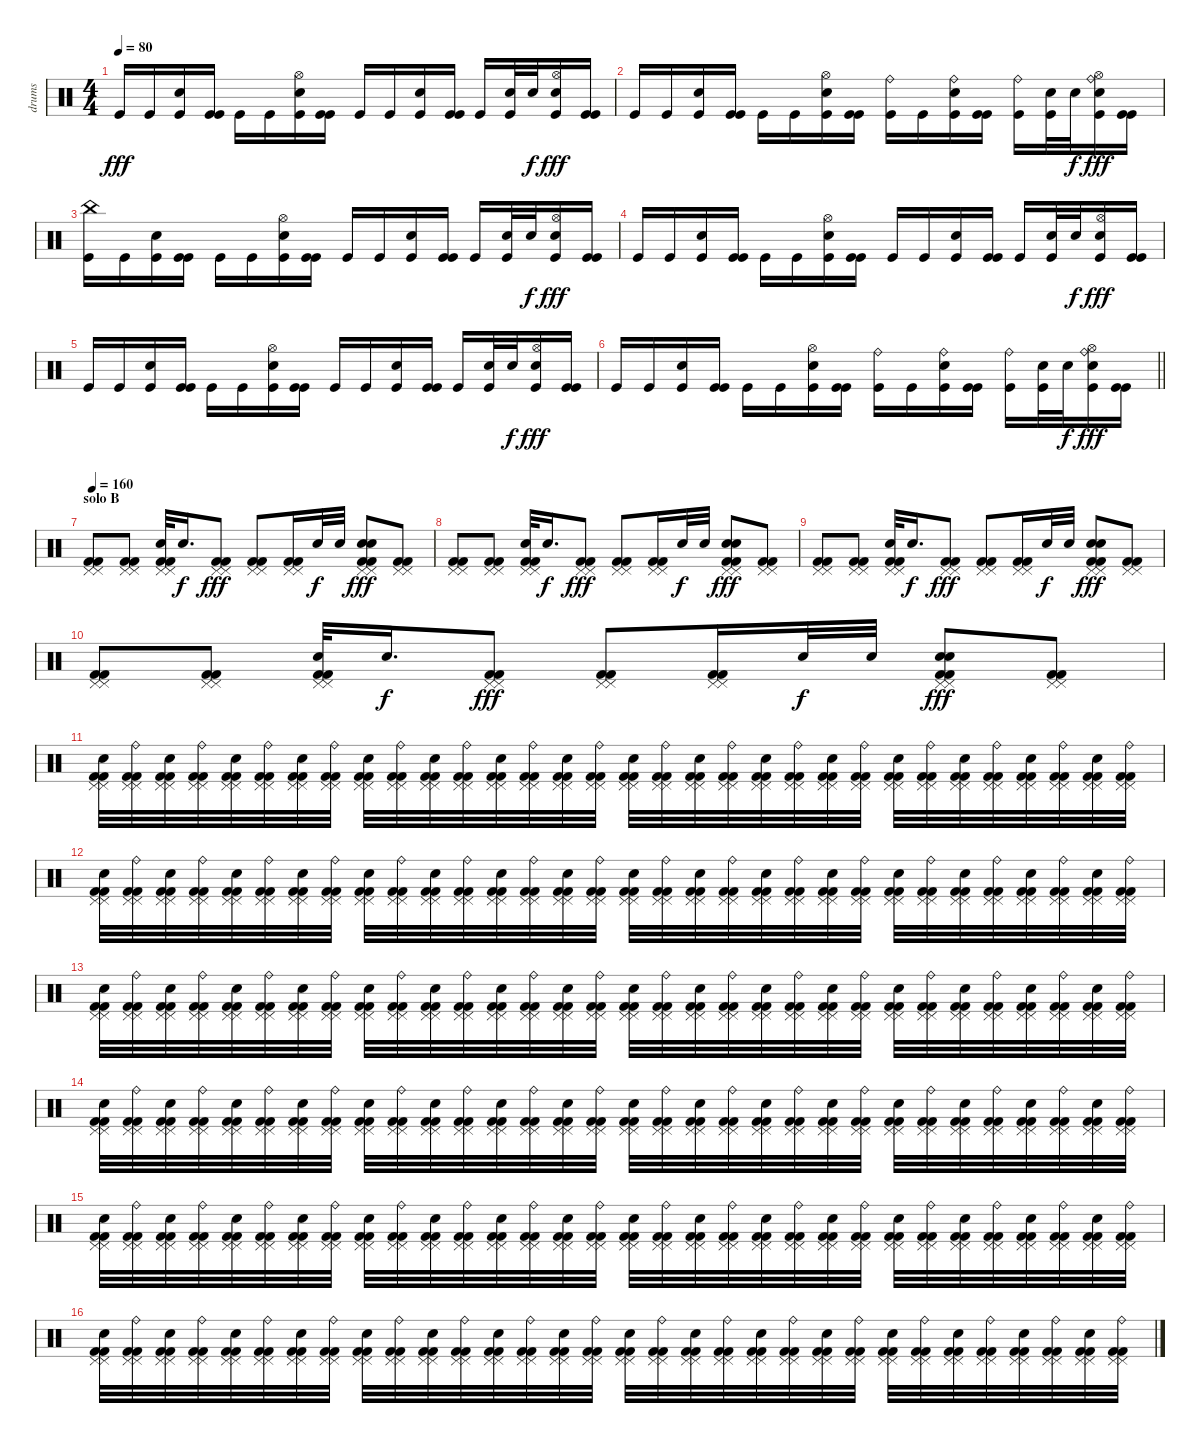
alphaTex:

\track ("drums" "drums") {instrument percussion}
\staff {score}
\articulation defaults
\ts (4 4)
\tempo 80
\clef neutral
\ks c "Kick (hit)".16{dy fff} "Kick (hit)".16
("Kick (hit)" "Electric Snare (hit)").16 ("Kick (hit)" "Kick (hit)").16 "Kick (hit)".16 "Kick (hit)".16 ("Kick (hit)" "Electric Snare (hit)" "Hi-Hat (open)").16 ("Kick (hit)" "Kick (hit)").16 "Kick (hit)".16 "Kick (hit)".16 ("Kick (hit)" "Electric Snare (hit)").16 ("Kick (hit)" "Kick (hit)").16 "Kick (hit)".16 ("Kick (hit)" "Electric Snare (hit)").32 "Electric Snare (hit)".32{dy f} ("Kick (hit)" "Snare (hit)" "Hi-Hat (open)").16{dy fff} ("Kick (hit)" "Kick (hit)").16 |
"Kick (hit)".16 "Kick (hit)".16 ("Kick (hit)" "Electric Snare (hit)").16 ("Kick (hit)" "Kick (hit)").16 "Kick (hit)".16 "Kick (hit)".16 ("Kick (hit)" "Electric Snare (hit)" "Hi-Hat (open)").16 ("Kick (hit)" "Kick (hit)").16 ("Kick (hit)" "Ride (bell)").16 "Kick (hit)".16 ("Kick (hit)" "Electric Snare (hit)" "Ride (bell)").16 ("Kick (hit)" "Kick (hit)").16 ("Kick (hit)" "Ride (bell)").16 ("Kick (hit)" "Electric Snare (hit)").32 "Electric Snare (hit)".32{dy f} ("Kick (hit)" "Snare (hit)" "Hi-Hat (open)" "Ride (bell)").16{dy fff} ("Kick (hit)" "Kick (hit)").16 |
("Kick (hit)" "China (hit)").16 "Kick (hit)".16 ("Kick (hit)" "Electric Snare (hit)").16 ("Kick (hit)" "Kick (hit)").16 "Kick (hit)".16 "Kick (hit)".16 ("Kick (hit)" "Electric Snare (hit)" "Hi-Hat (open)").16 ("Kick (hit)" "Kick (hit)").16 "Kick (hit)".16 "Kick (hit)".16 ("Kick (hit)" "Electric Snare (hit)").16 ("Kick (hit)" "Kick (hit)").16 "Kick (hit)".16 ("Kick (hit)" "Electric Snare (hit)").32 "Electric Snare (hit)".32{dy f} ("Kick (hit)" "Snare (hit)" "Hi-Hat (open)").16{dy fff} ("Kick (hit)" "Kick (hit)").16 |
"Kick (hit)".16 "Kick (hit)".16 ("Kick (hit)" "Electric Snare (hit)").16 ("Kick (hit)" "Kick (hit)").16 "Kick (hit)".16 "Kick (hit)".16 ("Kick (hit)" "Electric Snare (hit)" "Hi-Hat (open)").16 ("Kick (hit)" "Kick (hit)").16 "Kick (hit)".16 "Kick (hit)".16 ("Kick (hit)" "Electric Snare (hit)").16 ("Kick (hit)" "Kick (hit)").16 "Kick (hit)".16 ("Kick (hit)" "Electric Snare (hit)").32 "Electric Snare (hit)".32{dy f} ("Kick (hit)" "Snare (hit)" "Hi-Hat (open)").16{dy fff} ("Kick (hit)" "Kick (hit)").16 |
"Kick (hit)".16 "Kick (hit)".16 ("Kick (hit)" "Electric Snare (hit)").16 ("Kick (hit)" "Kick (hit)").16 "Kick (hit)".16 "Kick (hit)".16 ("Kick (hit)" "Electric Snare (hit)" "Hi-Hat (open)").16 ("Kick (hit)" "Kick (hit)").16 "Kick (hit)".16 "Kick (hit)".16 ("Kick (hit)" "Electric Snare (hit)").16 ("Kick (hit)" "Kick (hit)").16 "Kick (hit)".16 ("Kick (hit)" "Electric Snare (hit)").32 "Electric Snare (hit)".32{dy f} ("Kick (hit)" "Snare (hit)" "Hi-Hat (open)").16{dy fff} ("Kick (hit)" "Kick (hit)").16 |
\barLineRight lightlight "Kick (hit)".16 "Kick (hit)".16
("Kick (hit)" "Electric Snare (hit)").16 ("Kick (hit)" "Kick (hit)").16 "Kick (hit)".16 "Kick (hit)".16 ("Kick (hit)" "Electric Snare (hit)" "Hi-Hat (open)").16 ("Kick (hit)" "Kick (hit)").16 ("Kick (hit)" "Ride (bell)").16 "Kick (hit)".16 ("Kick (hit)" "Electric Snare (hit)" "Ride (bell)").16 ("Kick (hit)" "Kick (hit)").16 ("Kick (hit)" "Ride (bell)").16 ("Kick (hit)" "Electric Snare (hit)").32 "Electric Snare (hit)".32{dy f} ("Kick (hit)" "Snare (hit)" "Hi-Hat (open)" "Ride (bell)").16{dy fff} ("Kick (hit)" "Kick (hit)").16 |
\section ("" "solo B")
\tempo 160
("Pedal Hi-Hat (hit)" "Pedal Hi-Hat (hit)" "Kick (hit) 2" "Kick (hit) 2").8 ("Pedal Hi-Hat (hit)" "Pedal Hi-Hat (hit)" "Kick (hit) 2" "Kick (hit) 2").8 ("Snare (hit) 2" "Pedal Hi-Hat (hit)" "Pedal Hi-Hat (hit)" "Kick (hit) 2" "Kick (hit) 2").32 "Snare (hit) 2".16{d dy f} ("Pedal Hi-Hat (hit)" "Pedal Hi-Hat (hit)" "Kick (hit) 2" "Kick (hit) 2").8{dy fff} ("Pedal Hi-Hat (hit)" "Pedal Hi-Hat (hit)" "Kick (hit) 2" "Kick (hit) 2").8 ("Pedal Hi-Hat (hit)" "Pedal Hi-Hat (hit)" "Kick (hit) 2" "Kick (hit) 2").16 "Snare (hit) 2".32{dy f} "Snare (hit) 2".32 ("Snare (hit) 2" "Snare (hit) 2" "Pedal Hi-Hat (hit)" "Pedal Hi-Hat (hit)" "Kick (hit) 2" "Kick (hit) 2").8{dy fff} ("Pedal Hi-Hat (hit)" "Pedal Hi-Hat (hit)" "Kick (hit) 2" "Kick (hit) 2").8 |
("Pedal Hi-Hat (hit)" "Pedal Hi-Hat (hit)" "Kick (hit) 2" "Kick (hit) 2").8 ("Pedal Hi-Hat (hit)" "Pedal Hi-Hat (hit)" "Kick (hit) 2" "Kick (hit) 2").8 ("Snare (hit) 2" "Pedal Hi-Hat (hit)" "Pedal Hi-Hat (hit)" "Kick (hit) 2" "Kick (hit) 2").32 "Snare (hit) 2".16{d dy f} ("Pedal Hi-Hat (hit)" "Pedal Hi-Hat (hit)" "Kick (hit) 2" "Kick (hit) 2").8{dy fff} ("Pedal Hi-Hat (hit)" "Pedal Hi-Hat (hit)" "Kick (hit) 2" "Kick (hit) 2").8 ("Pedal Hi-Hat (hit)" "Pedal Hi-Hat (hit)" "Kick (hit) 2" "Kick (hit) 2").16 "Snare (hit) 2".32{dy f} "Snare (hit) 2".32 ("Snare (hit) 2" "Snare (hit) 2" "Pedal Hi-Hat (hit)" "Pedal Hi-Hat (hit)" "Kick (hit) 2" "Kick (hit) 2").8{dy fff} ("Pedal Hi-Hat (hit)" "Pedal Hi-Hat (hit)" "Kick (hit) 2" "Kick (hit) 2").8 |
("Pedal Hi-Hat (hit)" "Pedal Hi-Hat (hit)" "Kick (hit) 2" "Kick (hit) 2").8 ("Pedal Hi-Hat (hit)" "Pedal Hi-Hat (hit)" "Kick (hit) 2" "Kick (hit) 2").8 ("Snare (hit) 2" "Pedal Hi-Hat (hit)" "Pedal Hi-Hat (hit)" "Kick (hit) 2" "Kick (hit) 2").32 "Snare (hit) 2".16{d dy f} ("Pedal Hi-Hat (hit)" "Pedal Hi-Hat (hit)" "Kick (hit) 2" "Kick (hit) 2").8{dy fff} ("Pedal Hi-Hat (hit)" "Pedal Hi-Hat (hit)" "Kick (hit) 2" "Kick (hit) 2").8 ("Pedal Hi-Hat (hit)" "Pedal Hi-Hat (hit)" "Kick (hit) 2" "Kick (hit) 2").16 "Snare (hit) 2".32{dy f} "Snare (hit) 2".32 ("Snare (hit) 2" "Snare (hit) 2" "Pedal Hi-Hat (hit)" "Pedal Hi-Hat (hit)" "Kick (hit) 2" "Kick (hit) 2").8{dy fff} ("Pedal Hi-Hat (hit)" "Pedal Hi-Hat (hit)" "Kick (hit) 2" "Kick (hit) 2").8 |
("Pedal Hi-Hat (hit)" "Pedal Hi-Hat (hit)" "Kick (hit) 2" "Kick (hit) 2").8 ("Pedal Hi-Hat (hit)" "Pedal Hi-Hat (hit)" "Kick (hit) 2" "Kick (hit) 2").8 ("Snare (hit) 2" "Pedal Hi-Hat (hit)" "Pedal Hi-Hat (hit)" "Kick (hit) 2" "Kick (hit) 2").32 "Snare (hit) 2".16{d dy f} ("Pedal Hi-Hat (hit)" "Pedal Hi-Hat (hit)" "Kick (hit) 2" "Kick (hit) 2").8{dy fff} ("Pedal Hi-Hat (hit)" "Pedal Hi-Hat (hit)" "Kick (hit) 2" "Kick (hit) 2").8 ("Pedal Hi-Hat (hit)" "Pedal Hi-Hat (hit)" "Kick (hit) 2" "Kick (hit) 2").16 "Snare (hit) 2".32{dy f} "Snare (hit) 2".32 ("Snare (hit) 2" "Snare (hit) 2" "Pedal Hi-Hat (hit)" "Pedal Hi-Hat (hit)" "Kick (hit) 2" "Kick (hit) 2").8{dy fff} ("Pedal Hi-Hat (hit)" "Pedal Hi-Hat (hit)" "Kick (hit) 2" "Kick (hit) 2").8 |
("Electric Snare (hit)" "Pedal Hi-Hat (hit)" "Pedal Hi-Hat (hit)" "Kick (hit) 2" "Kick (hit) 2").32 ("Ride (bell)" "Pedal Hi-Hat (hit)" "Pedal Hi-Hat (hit)" "Kick (hit) 2" "Kick (hit) 2").32 ("Electric Snare (hit)" "Pedal Hi-Hat (hit)" "Pedal Hi-Hat (hit)" "Kick (hit) 2" "Kick (hit) 2").32 ("Ride (bell)" "Pedal Hi-Hat (hit)" "Pedal Hi-Hat (hit)" "Kick (hit) 2" "Kick (hit) 2").32 ("Electric Snare (hit)" "Pedal Hi-Hat (hit)" "Pedal Hi-Hat (hit)" "Kick (hit) 2" "Kick (hit) 2").32 ("Ride (bell)" "Pedal Hi-Hat (hit)" "Pedal Hi-Hat (hit)" "Kick (hit) 2" "Kick (hit) 2").32 ("Electric Snare (hit)" "Pedal Hi-Hat (hit)" "Pedal Hi-Hat (hit)" "Kick (hit) 2" "Kick (hit) 2").32 ("Ride (bell)" "Pedal Hi-Hat (hit)" "Pedal Hi-Hat (hit)" "Kick (hit) 2" "Kick (hit) 2").32 ("Electric Snare (hit)" "Pedal Hi-Hat (hit)" "Pedal Hi-Hat (hit)" "Kick (hit) 2" "Kick (hit) 2").32 ("Ride (bell)" "Pedal Hi-Hat (hit)" "Pedal Hi-Hat (hit)" "Kick (hit) 2" "Kick (hit) 2").32 ("Electric Snare (hit)" "Pedal Hi-Hat (hit)" "Pedal Hi-Hat (hit)" "Kick (hit) 2" "Kick (hit) 2").32 ("Ride (bell)" "Pedal Hi-Hat (hit)" "Pedal Hi-Hat (hit)" "Kick (hit) 2" "Kick (hit) 2").32 ("Electric Snare (hit)" "Pedal Hi-Hat (hit)" "Pedal Hi-Hat (hit)" "Kick (hit) 2" "Kick (hit) 2").32 ("Ride (bell)" "Pedal Hi-Hat (hit)" "Pedal Hi-Hat (hit)" "Kick (hit) 2" "Kick (hit) 2").32 ("Electric Snare (hit)" "Pedal Hi-Hat (hit)" "Pedal Hi-Hat (hit)" "Kick (hit) 2" "Kick (hit) 2").32 ("Ride (bell)" "Pedal Hi-Hat (hit)" "Pedal Hi-Hat (hit)" "Kick (hit) 2" "Kick (hit) 2").32 ("Electric Snare (hit)" "Pedal Hi-Hat (hit)" "Pedal Hi-Hat (hit)" "Kick (hit) 2" "Kick (hit) 2").32 ("Ride (bell)" "Pedal Hi-Hat (hit)" "Pedal Hi-Hat (hit)" "Kick (hit) 2" "Kick (hit) 2").32 ("Electric Snare (hit)" "Pedal Hi-Hat (hit)" "Pedal Hi-Hat (hit)" "Kick (hit) 2" "Kick (hit) 2").32 ("Ride (bell)" "Pedal Hi-Hat (hit)" "Pedal Hi-Hat (hit)" "Kick (hit) 2" "Kick (hit) 2").32 ("Electric Snare (hit)" "Pedal Hi-Hat (hit)" "Pedal Hi-Hat (hit)" "Kick (hit) 2" "Kick (hit) 2").32 ("Ride (bell)" "Pedal Hi-Hat (hit)" "Pedal Hi-Hat (hit)" "Kick (hit) 2" "Kick (hit) 2").32 ("Electric Snare (hit)" "Pedal Hi-Hat (hit)" "Pedal Hi-Hat (hit)" "Kick (hit) 2" "Kick (hit) 2").32 ("Ride (bell)" "Pedal Hi-Hat (hit)" "Pedal Hi-Hat (hit)" "Kick (hit) 2" "Kick (hit) 2").32 ("Electric Snare (hit)" "Pedal Hi-Hat (hit)" "Pedal Hi-Hat (hit)" "Kick (hit) 2" "Kick (hit) 2").32 ("Ride (bell)" "Pedal Hi-Hat (hit)" "Pedal Hi-Hat (hit)" "Kick (hit) 2" "Kick (hit) 2").32 ("Electric Snare (hit)" "Pedal Hi-Hat (hit)" "Pedal Hi-Hat (hit)" "Kick (hit) 2" "Kick (hit) 2").32 ("Ride (bell)" "Pedal Hi-Hat (hit)" "Pedal Hi-Hat (hit)" "Kick (hit) 2" "Kick (hit) 2").32 ("Electric Snare (hit)" "Pedal Hi-Hat (hit)" "Pedal Hi-Hat (hit)" "Kick (hit) 2" "Kick (hit) 2").32 ("Ride (bell)" "Pedal Hi-Hat (hit)" "Pedal Hi-Hat (hit)" "Kick (hit) 2" "Kick (hit) 2").32 ("Electric Snare (hit)" "Pedal Hi-Hat (hit)" "Pedal Hi-Hat (hit)" "Kick (hit) 2" "Kick (hit) 2").32 ("Ride (bell)" "Pedal Hi-Hat (hit)" "Pedal Hi-Hat (hit)" "Kick (hit) 2" "Kick (hit) 2").32 |
("Electric Snare (hit)" "Pedal Hi-Hat (hit)" "Pedal Hi-Hat (hit)" "Kick (hit) 2" "Kick (hit) 2").32 ("Ride (bell)" "Pedal Hi-Hat (hit)" "Pedal Hi-Hat (hit)" "Kick (hit) 2" "Kick (hit) 2").32 ("Electric Snare (hit)" "Pedal Hi-Hat (hit)" "Pedal Hi-Hat (hit)" "Kick (hit) 2" "Kick (hit) 2").32 ("Ride (bell)" "Pedal Hi-Hat (hit)" "Pedal Hi-Hat (hit)" "Kick (hit) 2" "Kick (hit) 2").32 ("Electric Snare (hit)" "Pedal Hi-Hat (hit)" "Pedal Hi-Hat (hit)" "Kick (hit) 2" "Kick (hit) 2").32 ("Ride (bell)" "Pedal Hi-Hat (hit)" "Pedal Hi-Hat (hit)" "Kick (hit) 2" "Kick (hit) 2").32 ("Electric Snare (hit)" "Pedal Hi-Hat (hit)" "Pedal Hi-Hat (hit)" "Kick (hit) 2" "Kick (hit) 2").32 ("Ride (bell)" "Pedal Hi-Hat (hit)" "Pedal Hi-Hat (hit)" "Kick (hit) 2" "Kick (hit) 2").32 ("Electric Snare (hit)" "Pedal Hi-Hat (hit)" "Pedal Hi-Hat (hit)" "Kick (hit) 2" "Kick (hit) 2").32 ("Ride (bell)" "Pedal Hi-Hat (hit)" "Pedal Hi-Hat (hit)" "Kick (hit) 2" "Kick (hit) 2").32 ("Electric Snare (hit)" "Pedal Hi-Hat (hit)" "Pedal Hi-Hat (hit)" "Kick (hit) 2" "Kick (hit) 2").32 ("Ride (bell)" "Pedal Hi-Hat (hit)" "Pedal Hi-Hat (hit)" "Kick (hit) 2" "Kick (hit) 2").32 ("Electric Snare (hit)" "Pedal Hi-Hat (hit)" "Pedal Hi-Hat (hit)" "Kick (hit) 2" "Kick (hit) 2").32 ("Ride (bell)" "Pedal Hi-Hat (hit)" "Pedal Hi-Hat (hit)" "Kick (hit) 2" "Kick (hit) 2").32 ("Electric Snare (hit)" "Pedal Hi-Hat (hit)" "Pedal Hi-Hat (hit)" "Kick (hit) 2" "Kick (hit) 2").32 ("Ride (bell)" "Pedal Hi-Hat (hit)" "Pedal Hi-Hat (hit)" "Kick (hit) 2" "Kick (hit) 2").32 ("Electric Snare (hit)" "Pedal Hi-Hat (hit)" "Pedal Hi-Hat (hit)" "Kick (hit) 2" "Kick (hit) 2").32 ("Ride (bell)" "Pedal Hi-Hat (hit)" "Pedal Hi-Hat (hit)" "Kick (hit) 2" "Kick (hit) 2").32 ("Electric Snare (hit)" "Pedal Hi-Hat (hit)" "Pedal Hi-Hat (hit)" "Kick (hit) 2" "Kick (hit) 2").32 ("Ride (bell)" "Pedal Hi-Hat (hit)" "Pedal Hi-Hat (hit)" "Kick (hit) 2" "Kick (hit) 2").32 ("Electric Snare (hit)" "Pedal Hi-Hat (hit)" "Pedal Hi-Hat (hit)" "Kick (hit) 2" "Kick (hit) 2").32 ("Ride (bell)" "Pedal Hi-Hat (hit)" "Pedal Hi-Hat (hit)" "Kick (hit) 2" "Kick (hit) 2").32 ("Electric Snare (hit)" "Pedal Hi-Hat (hit)" "Pedal Hi-Hat (hit)" "Kick (hit) 2" "Kick (hit) 2").32 ("Ride (bell)" "Pedal Hi-Hat (hit)" "Pedal Hi-Hat (hit)" "Kick (hit) 2" "Kick (hit) 2").32 ("Electric Snare (hit)" "Pedal Hi-Hat (hit)" "Pedal Hi-Hat (hit)" "Kick (hit) 2" "Kick (hit) 2").32 ("Ride (bell)" "Pedal Hi-Hat (hit)" "Pedal Hi-Hat (hit)" "Kick (hit) 2" "Kick (hit) 2").32 ("Electric Snare (hit)" "Pedal Hi-Hat (hit)" "Pedal Hi-Hat (hit)" "Kick (hit) 2" "Kick (hit) 2").32 ("Ride (bell)" "Pedal Hi-Hat (hit)" "Pedal Hi-Hat (hit)" "Kick (hit) 2" "Kick (hit) 2").32 ("Electric Snare (hit)" "Pedal Hi-Hat (hit)" "Pedal Hi-Hat (hit)" "Kick (hit) 2" "Kick (hit) 2").32 ("Ride (bell)" "Pedal Hi-Hat (hit)" "Pedal Hi-Hat (hit)" "Kick (hit) 2" "Kick (hit) 2").32 ("Electric Snare (hit)" "Pedal Hi-Hat (hit)" "Pedal Hi-Hat (hit)" "Kick (hit) 2" "Kick (hit) 2").32 ("Ride (bell)" "Pedal Hi-Hat (hit)" "Pedal Hi-Hat (hit)" "Kick (hit) 2" "Kick (hit) 2").32 |
("Electric Snare (hit)" "Pedal Hi-Hat (hit)" "Pedal Hi-Hat (hit)" "Kick (hit) 2" "Kick (hit) 2").32 ("Ride (bell)" "Pedal Hi-Hat (hit)" "Pedal Hi-Hat (hit)" "Kick (hit) 2" "Kick (hit) 2").32 ("Electric Snare (hit)" "Pedal Hi-Hat (hit)" "Pedal Hi-Hat (hit)" "Kick (hit) 2" "Kick (hit) 2").32 ("Ride (bell)" "Pedal Hi-Hat (hit)" "Pedal Hi-Hat (hit)" "Kick (hit) 2" "Kick (hit) 2").32 ("Electric Snare (hit)" "Pedal Hi-Hat (hit)" "Pedal Hi-Hat (hit)" "Kick (hit) 2" "Kick (hit) 2").32 ("Ride (bell)" "Pedal Hi-Hat (hit)" "Pedal Hi-Hat (hit)" "Kick (hit) 2" "Kick (hit) 2").32 ("Electric Snare (hit)" "Pedal Hi-Hat (hit)" "Pedal Hi-Hat (hit)" "Kick (hit) 2" "Kick (hit) 2").32 ("Ride (bell)" "Pedal Hi-Hat (hit)" "Pedal Hi-Hat (hit)" "Kick (hit) 2" "Kick (hit) 2").32 ("Electric Snare (hit)" "Pedal Hi-Hat (hit)" "Pedal Hi-Hat (hit)" "Kick (hit) 2" "Kick (hit) 2").32 ("Ride (bell)" "Pedal Hi-Hat (hit)" "Pedal Hi-Hat (hit)" "Kick (hit) 2" "Kick (hit) 2").32 ("Electric Snare (hit)" "Pedal Hi-Hat (hit)" "Pedal Hi-Hat (hit)" "Kick (hit) 2" "Kick (hit) 2").32 ("Ride (bell)" "Pedal Hi-Hat (hit)" "Pedal Hi-Hat (hit)" "Kick (hit) 2" "Kick (hit) 2").32 ("Electric Snare (hit)" "Pedal Hi-Hat (hit)" "Pedal Hi-Hat (hit)" "Kick (hit) 2" "Kick (hit) 2").32 ("Ride (bell)" "Pedal Hi-Hat (hit)" "Pedal Hi-Hat (hit)" "Kick (hit) 2" "Kick (hit) 2").32 ("Electric Snare (hit)" "Pedal Hi-Hat (hit)" "Pedal Hi-Hat (hit)" "Kick (hit) 2" "Kick (hit) 2").32 ("Ride (bell)" "Pedal Hi-Hat (hit)" "Pedal Hi-Hat (hit)" "Kick (hit) 2" "Kick (hit) 2").32 ("Electric Snare (hit)" "Pedal Hi-Hat (hit)" "Pedal Hi-Hat (hit)" "Kick (hit) 2" "Kick (hit) 2").32 ("Ride (bell)" "Pedal Hi-Hat (hit)" "Pedal Hi-Hat (hit)" "Kick (hit) 2" "Kick (hit) 2").32 ("Electric Snare (hit)" "Pedal Hi-Hat (hit)" "Pedal Hi-Hat (hit)" "Kick (hit) 2" "Kick (hit) 2").32 ("Ride (bell)" "Pedal Hi-Hat (hit)" "Pedal Hi-Hat (hit)" "Kick (hit) 2" "Kick (hit) 2").32 ("Electric Snare (hit)" "Pedal Hi-Hat (hit)" "Pedal Hi-Hat (hit)" "Kick (hit) 2" "Kick (hit) 2").32 ("Ride (bell)" "Pedal Hi-Hat (hit)" "Pedal Hi-Hat (hit)" "Kick (hit) 2" "Kick (hit) 2").32 ("Electric Snare (hit)" "Pedal Hi-Hat (hit)" "Pedal Hi-Hat (hit)" "Kick (hit) 2" "Kick (hit) 2").32 ("Ride (bell)" "Pedal Hi-Hat (hit)" "Pedal Hi-Hat (hit)" "Kick (hit) 2" "Kick (hit) 2").32 ("Electric Snare (hit)" "Pedal Hi-Hat (hit)" "Pedal Hi-Hat (hit)" "Kick (hit) 2" "Kick (hit) 2").32 ("Ride (bell)" "Pedal Hi-Hat (hit)" "Pedal Hi-Hat (hit)" "Kick (hit) 2" "Kick (hit) 2").32 ("Electric Snare (hit)" "Pedal Hi-Hat (hit)" "Pedal Hi-Hat (hit)" "Kick (hit) 2" "Kick (hit) 2").32 ("Ride (bell)" "Pedal Hi-Hat (hit)" "Pedal Hi-Hat (hit)" "Kick (hit) 2" "Kick (hit) 2").32 ("Electric Snare (hit)" "Pedal Hi-Hat (hit)" "Pedal Hi-Hat (hit)" "Kick (hit) 2" "Kick (hit) 2").32 ("Ride (bell)" "Pedal Hi-Hat (hit)" "Pedal Hi-Hat (hit)" "Kick (hit) 2" "Kick (hit) 2").32 ("Electric Snare (hit)" "Pedal Hi-Hat (hit)" "Pedal Hi-Hat (hit)" "Kick (hit) 2" "Kick (hit) 2").32 ("Ride (bell)" "Pedal Hi-Hat (hit)" "Pedal Hi-Hat (hit)" "Kick (hit) 2" "Kick (hit) 2").32 |
("Electric Snare (hit)" "Pedal Hi-Hat (hit)" "Pedal Hi-Hat (hit)" "Kick (hit) 2" "Kick (hit) 2").32 ("Ride (bell)" "Pedal Hi-Hat (hit)" "Pedal Hi-Hat (hit)" "Kick (hit) 2" "Kick (hit) 2").32 ("Electric Snare (hit)" "Pedal Hi-Hat (hit)" "Pedal Hi-Hat (hit)" "Kick (hit) 2" "Kick (hit) 2").32 ("Ride (bell)" "Pedal Hi-Hat (hit)" "Pedal Hi-Hat (hit)" "Kick (hit) 2" "Kick (hit) 2").32 ("Electric Snare (hit)" "Pedal Hi-Hat (hit)" "Pedal Hi-Hat (hit)" "Kick (hit) 2" "Kick (hit) 2").32 ("Ride (bell)" "Pedal Hi-Hat (hit)" "Pedal Hi-Hat (hit)" "Kick (hit) 2" "Kick (hit) 2").32 ("Electric Snare (hit)" "Pedal Hi-Hat (hit)" "Pedal Hi-Hat (hit)" "Kick (hit) 2" "Kick (hit) 2").32 ("Ride (bell)" "Pedal Hi-Hat (hit)" "Pedal Hi-Hat (hit)" "Kick (hit) 2" "Kick (hit) 2").32 ("Electric Snare (hit)" "Pedal Hi-Hat (hit)" "Pedal Hi-Hat (hit)" "Kick (hit) 2" "Kick (hit) 2").32 ("Ride (bell)" "Pedal Hi-Hat (hit)" "Pedal Hi-Hat (hit)" "Kick (hit) 2" "Kick (hit) 2").32 ("Electric Snare (hit)" "Pedal Hi-Hat (hit)" "Pedal Hi-Hat (hit)" "Kick (hit) 2" "Kick (hit) 2").32 ("Ride (bell)" "Pedal Hi-Hat (hit)" "Pedal Hi-Hat (hit)" "Kick (hit) 2" "Kick (hit) 2").32 ("Electric Snare (hit)" "Pedal Hi-Hat (hit)" "Pedal Hi-Hat (hit)" "Kick (hit) 2" "Kick (hit) 2").32 ("Ride (bell)" "Pedal Hi-Hat (hit)" "Pedal Hi-Hat (hit)" "Kick (hit) 2" "Kick (hit) 2").32 ("Electric Snare (hit)" "Pedal Hi-Hat (hit)" "Pedal Hi-Hat (hit)" "Kick (hit) 2" "Kick (hit) 2").32 ("Ride (bell)" "Pedal Hi-Hat (hit)" "Pedal Hi-Hat (hit)" "Kick (hit) 2" "Kick (hit) 2").32 ("Electric Snare (hit)" "Pedal Hi-Hat (hit)" "Pedal Hi-Hat (hit)" "Kick (hit) 2" "Kick (hit) 2").32 ("Ride (bell)" "Pedal Hi-Hat (hit)" "Pedal Hi-Hat (hit)" "Kick (hit) 2" "Kick (hit) 2").32 ("Electric Snare (hit)" "Pedal Hi-Hat (hit)" "Pedal Hi-Hat (hit)" "Kick (hit) 2" "Kick (hit) 2").32 ("Ride (bell)" "Pedal Hi-Hat (hit)" "Pedal Hi-Hat (hit)" "Kick (hit) 2" "Kick (hit) 2").32 ("Electric Snare (hit)" "Pedal Hi-Hat (hit)" "Pedal Hi-Hat (hit)" "Kick (hit) 2" "Kick (hit) 2").32 ("Ride (bell)" "Pedal Hi-Hat (hit)" "Pedal Hi-Hat (hit)" "Kick (hit) 2" "Kick (hit) 2").32 ("Electric Snare (hit)" "Pedal Hi-Hat (hit)" "Pedal Hi-Hat (hit)" "Kick (hit) 2" "Kick (hit) 2").32 ("Ride (bell)" "Pedal Hi-Hat (hit)" "Pedal Hi-Hat (hit)" "Kick (hit) 2" "Kick (hit) 2").32 ("Electric Snare (hit)" "Pedal Hi-Hat (hit)" "Pedal Hi-Hat (hit)" "Kick (hit) 2" "Kick (hit) 2").32 ("Ride (bell)" "Pedal Hi-Hat (hit)" "Pedal Hi-Hat (hit)" "Kick (hit) 2" "Kick (hit) 2").32 ("Electric Snare (hit)" "Pedal Hi-Hat (hit)" "Pedal Hi-Hat (hit)" "Kick (hit) 2" "Kick (hit) 2").32 ("Ride (bell)" "Pedal Hi-Hat (hit)" "Pedal Hi-Hat (hit)" "Kick (hit) 2" "Kick (hit) 2").32 ("Electric Snare (hit)" "Pedal Hi-Hat (hit)" "Pedal Hi-Hat (hit)" "Kick (hit) 2" "Kick (hit) 2").32 ("Ride (bell)" "Pedal Hi-Hat (hit)" "Pedal Hi-Hat (hit)" "Kick (hit) 2" "Kick (hit) 2").32 ("Electric Snare (hit)" "Pedal Hi-Hat (hit)" "Pedal Hi-Hat (hit)" "Kick (hit) 2" "Kick (hit) 2").32 ("Ride (bell)" "Pedal Hi-Hat (hit)" "Pedal Hi-Hat (hit)" "Kick (hit) 2" "Kick (hit) 2").32 |
("Electric Snare (hit)" "Pedal Hi-Hat (hit)" "Pedal Hi-Hat (hit)" "Kick (hit) 2" "Kick (hit) 2").32 ("Ride (bell)" "Pedal Hi-Hat (hit)" "Pedal Hi-Hat (hit)" "Kick (hit) 2" "Kick (hit) 2").32 ("Electric Snare (hit)" "Pedal Hi-Hat (hit)" "Pedal Hi-Hat (hit)" "Kick (hit) 2" "Kick (hit) 2").32 ("Ride (bell)" "Pedal Hi-Hat (hit)" "Pedal Hi-Hat (hit)" "Kick (hit) 2" "Kick (hit) 2").32 ("Electric Snare (hit)" "Pedal Hi-Hat (hit)" "Pedal Hi-Hat (hit)" "Kick (hit) 2" "Kick (hit) 2").32 ("Ride (bell)" "Pedal Hi-Hat (hit)" "Pedal Hi-Hat (hit)" "Kick (hit) 2" "Kick (hit) 2").32 ("Electric Snare (hit)" "Pedal Hi-Hat (hit)" "Pedal Hi-Hat (hit)" "Kick (hit) 2" "Kick (hit) 2").32 ("Ride (bell)" "Pedal Hi-Hat (hit)" "Pedal Hi-Hat (hit)" "Kick (hit) 2" "Kick (hit) 2").32 ("Electric Snare (hit)" "Pedal Hi-Hat (hit)" "Pedal Hi-Hat (hit)" "Kick (hit) 2" "Kick (hit) 2").32 ("Ride (bell)" "Pedal Hi-Hat (hit)" "Pedal Hi-Hat (hit)" "Kick (hit) 2" "Kick (hit) 2").32 ("Electric Snare (hit)" "Pedal Hi-Hat (hit)" "Pedal Hi-Hat (hit)" "Kick (hit) 2" "Kick (hit) 2").32 ("Ride (bell)" "Pedal Hi-Hat (hit)" "Pedal Hi-Hat (hit)" "Kick (hit) 2" "Kick (hit) 2").32 ("Electric Snare (hit)" "Pedal Hi-Hat (hit)" "Pedal Hi-Hat (hit)" "Kick (hit) 2" "Kick (hit) 2").32 ("Ride (bell)" "Pedal Hi-Hat (hit)" "Pedal Hi-Hat (hit)" "Kick (hit) 2" "Kick (hit) 2").32 ("Electric Snare (hit)" "Pedal Hi-Hat (hit)" "Pedal Hi-Hat (hit)" "Kick (hit) 2" "Kick (hit) 2").32 ("Ride (bell)" "Pedal Hi-Hat (hit)" "Pedal Hi-Hat (hit)" "Kick (hit) 2" "Kick (hit) 2").32 ("Electric Snare (hit)" "Pedal Hi-Hat (hit)" "Pedal Hi-Hat (hit)" "Kick (hit) 2" "Kick (hit) 2").32 ("Ride (bell)" "Pedal Hi-Hat (hit)" "Pedal Hi-Hat (hit)" "Kick (hit) 2" "Kick (hit) 2").32 ("Electric Snare (hit)" "Pedal Hi-Hat (hit)" "Pedal Hi-Hat (hit)" "Kick (hit) 2" "Kick (hit) 2").32 ("Ride (bell)" "Pedal Hi-Hat (hit)" "Pedal Hi-Hat (hit)" "Kick (hit) 2" "Kick (hit) 2").32 ("Electric Snare (hit)" "Pedal Hi-Hat (hit)" "Pedal Hi-Hat (hit)" "Kick (hit) 2" "Kick (hit) 2").32 ("Ride (bell)" "Pedal Hi-Hat (hit)" "Pedal Hi-Hat (hit)" "Kick (hit) 2" "Kick (hit) 2").32 ("Electric Snare (hit)" "Pedal Hi-Hat (hit)" "Pedal Hi-Hat (hit)" "Kick (hit) 2" "Kick (hit) 2").32 ("Ride (bell)" "Pedal Hi-Hat (hit)" "Pedal Hi-Hat (hit)" "Kick (hit) 2" "Kick (hit) 2").32 ("Electric Snare (hit)" "Pedal Hi-Hat (hit)" "Pedal Hi-Hat (hit)" "Kick (hit) 2" "Kick (hit) 2").32 ("Ride (bell)" "Pedal Hi-Hat (hit)" "Pedal Hi-Hat (hit)" "Kick (hit) 2" "Kick (hit) 2").32 ("Electric Snare (hit)" "Pedal Hi-Hat (hit)" "Pedal Hi-Hat (hit)" "Kick (hit) 2" "Kick (hit) 2").32 ("Ride (bell)" "Pedal Hi-Hat (hit)" "Pedal Hi-Hat (hit)" "Kick (hit) 2" "Kick (hit) 2").32 ("Electric Snare (hit)" "Pedal Hi-Hat (hit)" "Pedal Hi-Hat (hit)" "Kick (hit) 2" "Kick (hit) 2").32 ("Ride (bell)" "Pedal Hi-Hat (hit)" "Pedal Hi-Hat (hit)" "Kick (hit) 2" "Kick (hit) 2").32 ("Electric Snare (hit)" "Pedal Hi-Hat (hit)" "Pedal Hi-Hat (hit)" "Kick (hit) 2" "Kick (hit) 2").32 ("Ride (bell)" "Pedal Hi-Hat (hit)" "Pedal Hi-Hat (hit)" "Kick (hit) 2" "Kick (hit) 2").32 |
("Electric Snare (hit)" "Pedal Hi-Hat (hit)" "Pedal Hi-Hat (hit)" "Kick (hit) 2" "Kick (hit) 2").32 ("Ride (bell)" "Pedal Hi-Hat (hit)" "Pedal Hi-Hat (hit)" "Kick (hit) 2" "Kick (hit) 2").32 ("Electric Snare (hit)" "Pedal Hi-Hat (hit)" "Pedal Hi-Hat (hit)" "Kick (hit) 2" "Kick (hit) 2").32 ("Ride (bell)" "Pedal Hi-Hat (hit)" "Pedal Hi-Hat (hit)" "Kick (hit) 2" "Kick (hit) 2").32 ("Electric Snare (hit)" "Pedal Hi-Hat (hit)" "Pedal Hi-Hat (hit)" "Kick (hit) 2" "Kick (hit) 2").32 ("Ride (bell)" "Pedal Hi-Hat (hit)" "Pedal Hi-Hat (hit)" "Kick (hit) 2" "Kick (hit) 2").32 ("Electric Snare (hit)" "Pedal Hi-Hat (hit)" "Pedal Hi-Hat (hit)" "Kick (hit) 2" "Kick (hit) 2").32 ("Ride (bell)" "Pedal Hi-Hat (hit)" "Pedal Hi-Hat (hit)" "Kick (hit) 2" "Kick (hit) 2").32 ("Electric Snare (hit)" "Pedal Hi-Hat (hit)" "Pedal Hi-Hat (hit)" "Kick (hit) 2" "Kick (hit) 2").32 ("Ride (bell)" "Pedal Hi-Hat (hit)" "Pedal Hi-Hat (hit)" "Kick (hit) 2" "Kick (hit) 2").32 ("Electric Snare (hit)" "Pedal Hi-Hat (hit)" "Pedal Hi-Hat (hit)" "Kick (hit) 2" "Kick (hit) 2").32 ("Ride (bell)" "Pedal Hi-Hat (hit)" "Pedal Hi-Hat (hit)" "Kick (hit) 2" "Kick (hit) 2").32 ("Electric Snare (hit)" "Pedal Hi-Hat (hit)" "Pedal Hi-Hat (hit)" "Kick (hit) 2" "Kick (hit) 2").32 ("Ride (bell)" "Pedal Hi-Hat (hit)" "Pedal Hi-Hat (hit)" "Kick (hit) 2" "Kick (hit) 2").32 ("Electric Snare (hit)" "Pedal Hi-Hat (hit)" "Pedal Hi-Hat (hit)" "Kick (hit) 2" "Kick (hit) 2").32 ("Ride (bell)" "Pedal Hi-Hat (hit)" "Pedal Hi-Hat (hit)" "Kick (hit) 2" "Kick (hit) 2").32 ("Electric Snare (hit)" "Pedal Hi-Hat (hit)" "Pedal Hi-Hat (hit)" "Kick (hit) 2" "Kick (hit) 2").32 ("Ride (bell)" "Pedal Hi-Hat (hit)" "Pedal Hi-Hat (hit)" "Kick (hit) 2" "Kick (hit) 2").32 ("Electric Snare (hit)" "Pedal Hi-Hat (hit)" "Pedal Hi-Hat (hit)" "Kick (hit) 2" "Kick (hit) 2").32 ("Ride (bell)" "Pedal Hi-Hat (hit)" "Pedal Hi-Hat (hit)" "Kick (hit) 2" "Kick (hit) 2").32 ("Electric Snare (hit)" "Pedal Hi-Hat (hit)" "Pedal Hi-Hat (hit)" "Kick (hit) 2" "Kick (hit) 2").32 ("Ride (bell)" "Pedal Hi-Hat (hit)" "Pedal Hi-Hat (hit)" "Kick (hit) 2" "Kick (hit) 2").32 ("Electric Snare (hit)" "Pedal Hi-Hat (hit)" "Pedal Hi-Hat (hit)" "Kick (hit) 2" "Kick (hit) 2").32 ("Ride (bell)" "Pedal Hi-Hat (hit)" "Pedal Hi-Hat (hit)" "Kick (hit) 2" "Kick (hit) 2").32 ("Electric Snare (hit)" "Pedal Hi-Hat (hit)" "Pedal Hi-Hat (hit)" "Kick (hit) 2" "Kick (hit) 2").32 ("Ride (bell)" "Pedal Hi-Hat (hit)" "Pedal Hi-Hat (hit)" "Kick (hit) 2" "Kick (hit) 2").32 ("Electric Snare (hit)" "Pedal Hi-Hat (hit)" "Pedal Hi-Hat (hit)" "Kick (hit) 2" "Kick (hit) 2").32 ("Ride (bell)" "Pedal Hi-Hat (hit)" "Pedal Hi-Hat (hit)" "Kick (hit) 2" "Kick (hit) 2").32 ("Electric Snare (hit)" "Pedal Hi-Hat (hit)" "Pedal Hi-Hat (hit)" "Kick (hit) 2" "Kick (hit) 2").32 ("Ride (bell)" "Pedal Hi-Hat (hit)" "Pedal Hi-Hat (hit)" "Kick (hit) 2" "Kick (hit) 2").32 ("Electric Snare (hit)" "Pedal Hi-Hat (hit)" "Pedal Hi-Hat (hit)" "Kick (hit) 2" "Kick (hit) 2").32 ("Ride (bell)" "Pedal Hi-Hat (hit)" "Pedal Hi-Hat (hit)" "Kick (hit) 2" "Kick (hit) 2").32
